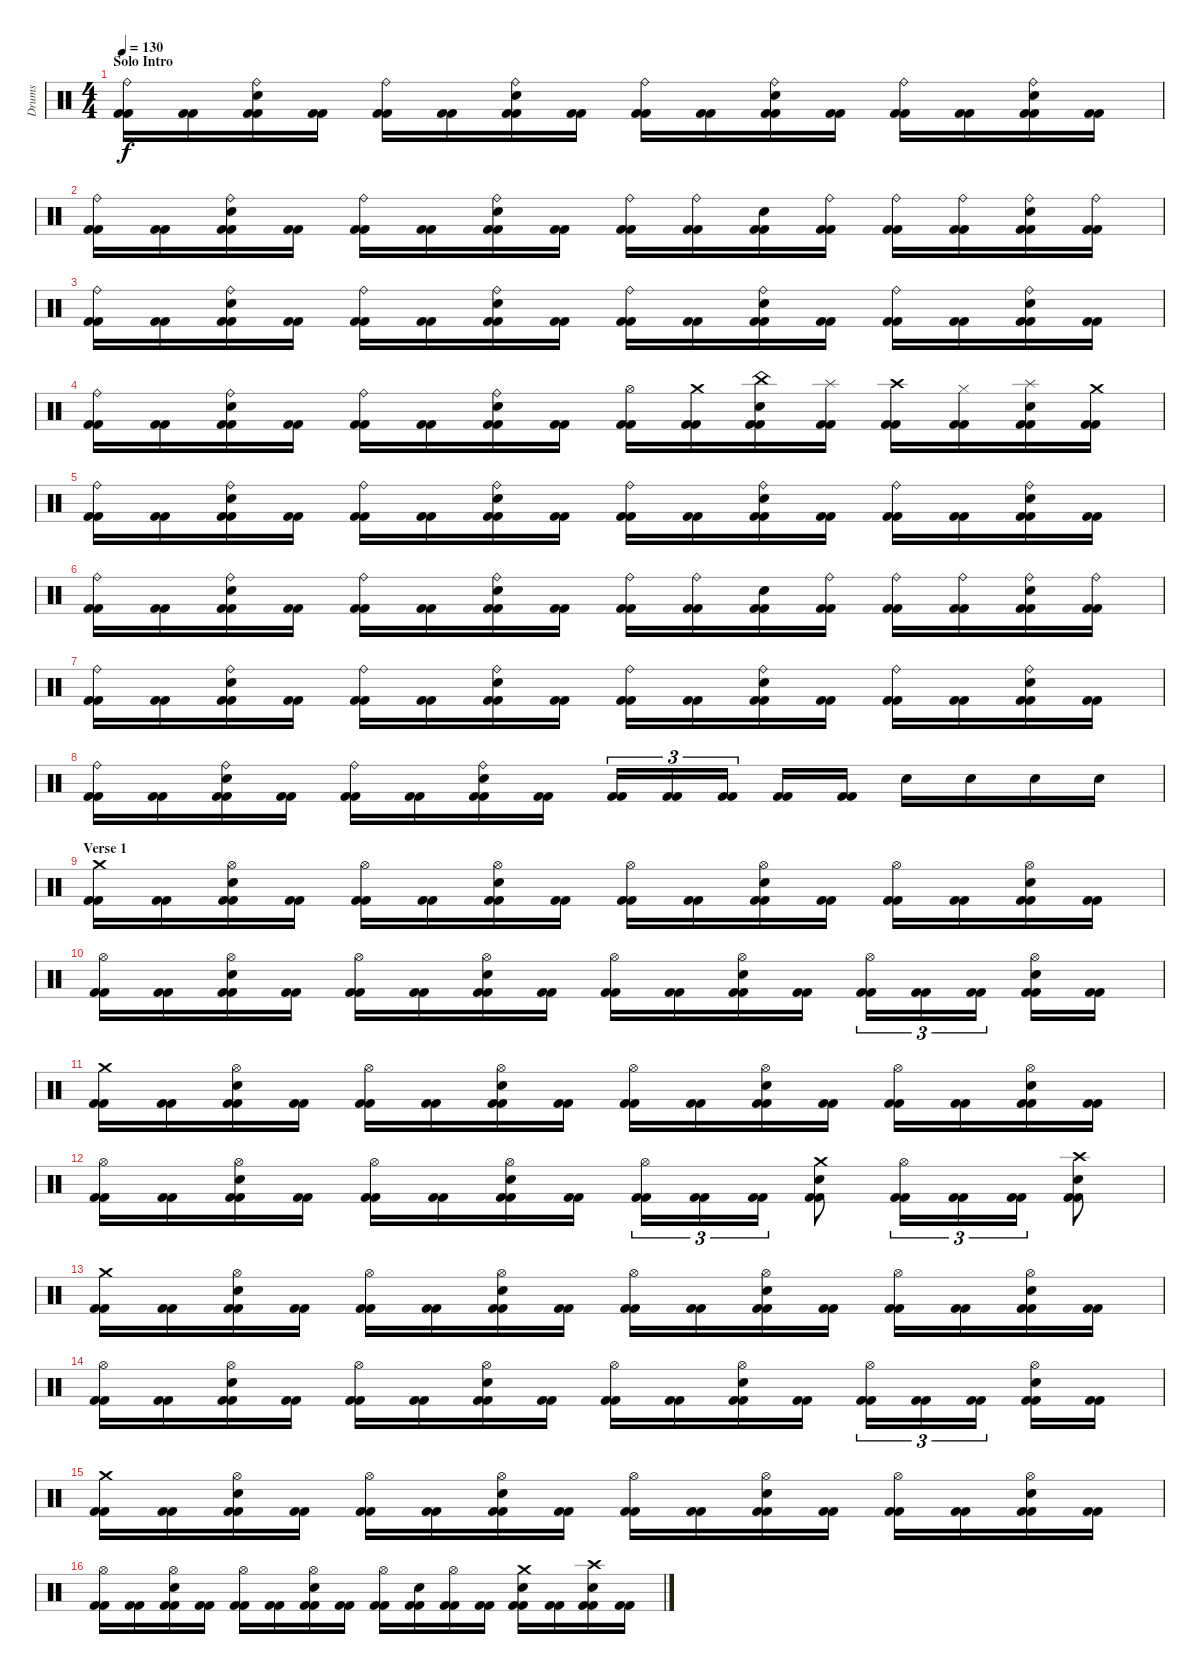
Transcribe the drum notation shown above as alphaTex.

\track ("Drums" "Drums") {instrument percussion}
\staff {score}
\articulation defaults
\ts (4 4)
\section ("" "Solo Intro")
\tempo 130
\clef neutral
\ks c
("Ride (bell)" "Kick (hit) 2" "Kick (hit) 2").16{dy f} ("Kick (hit) 2" "Kick (hit) 2").16 ("Ride (bell)" "Electric Snare (hit)" "Kick (hit) 2" "Kick (hit) 2").16 ("Kick (hit) 2" "Kick (hit) 2").16 ("Ride (bell)" "Kick (hit) 2" "Kick (hit) 2").16 ("Kick (hit) 2" "Kick (hit) 2").16 ("Ride (bell)" "Electric Snare (hit)" "Kick (hit) 2" "Kick (hit) 2").16 ("Kick (hit) 2" "Kick (hit) 2").16 ("Ride (bell)" "Kick (hit) 2" "Kick (hit) 2").16 ("Kick (hit) 2" "Kick (hit) 2").16 ("Ride (bell)" "Electric Snare (hit)" "Kick (hit) 2" "Kick (hit) 2").16 ("Kick (hit) 2" "Kick (hit) 2").16 ("Ride (bell)" "Kick (hit) 2" "Kick (hit) 2").16 ("Kick (hit) 2" "Kick (hit) 2").16 ("Ride (bell)" "Electric Snare (hit)" "Kick (hit) 2" "Kick (hit) 2").16 ("Kick (hit) 2" "Kick (hit) 2").16 |
("Ride (bell)" "Kick (hit) 2" "Kick (hit) 2").16 ("Kick (hit) 2" "Kick (hit) 2").16 ("Ride (bell)" "Electric Snare (hit)" "Kick (hit) 2" "Kick (hit) 2").16 ("Kick (hit) 2" "Kick (hit) 2").16 ("Ride (bell)" "Kick (hit) 2" "Kick (hit) 2").16 ("Kick (hit) 2" "Kick (hit) 2").16 ("Ride (bell)" "Electric Snare (hit)" "Kick (hit) 2" "Kick (hit) 2").16 ("Kick (hit) 2" "Kick (hit) 2").16 ("Ride (bell)" "Kick (hit) 2" "Kick (hit) 2").16 ("Ride (bell)" "Kick (hit) 2" "Kick (hit) 2").16 ("Electric Snare (hit)" "Kick (hit) 2" "Kick (hit) 2").16 ("Ride (bell)" "Kick (hit) 2" "Kick (hit) 2").16 ("Ride (bell)" "Kick (hit) 2" "Kick (hit) 2").16 ("Ride (bell)" "Kick (hit) 2" "Kick (hit) 2").16 ("Ride (bell)" "Electric Snare (hit)" "Kick (hit) 2" "Kick (hit) 2").16 ("Ride (bell)" "Kick (hit) 2" "Kick (hit) 2").16 |
("Ride (bell)" "Kick (hit) 2" "Kick (hit) 2").16 ("Kick (hit) 2" "Kick (hit) 2").16 ("Ride (bell)" "Electric Snare (hit)" "Kick (hit) 2" "Kick (hit) 2").16 ("Kick (hit) 2" "Kick (hit) 2").16 ("Ride (bell)" "Kick (hit) 2" "Kick (hit) 2").16 ("Kick (hit) 2" "Kick (hit) 2").16 ("Ride (bell)" "Electric Snare (hit)" "Kick (hit) 2" "Kick (hit) 2").16 ("Kick (hit) 2" "Kick (hit) 2").16 ("Ride (bell)" "Kick (hit) 2" "Kick (hit) 2").16 ("Kick (hit) 2" "Kick (hit) 2").16 ("Ride (bell)" "Electric Snare (hit)" "Kick (hit) 2" "Kick (hit) 2").16 ("Kick (hit) 2" "Kick (hit) 2").16 ("Ride (bell)" "Kick (hit) 2" "Kick (hit) 2").16 ("Kick (hit) 2" "Kick (hit) 2").16 ("Ride (bell)" "Electric Snare (hit)" "Kick (hit) 2" "Kick (hit) 2").16 ("Kick (hit) 2" "Kick (hit) 2").16 |
("Ride (bell)" "Kick (hit) 2" "Kick (hit) 2").16 ("Kick (hit) 2" "Kick (hit) 2").16 ("Ride (bell)" "Electric Snare (hit)" "Kick (hit) 2" "Kick (hit) 2").16 ("Kick (hit) 2" "Kick (hit) 2").16 ("Ride (bell)" "Kick (hit) 2" "Kick (hit) 2").16 ("Kick (hit) 2" "Kick (hit) 2").16 ("Ride (bell)" "Electric Snare (hit)" "Kick (hit) 2" "Kick (hit) 2").16 ("Kick (hit) 2" "Kick (hit) 2").16 ("Hi-Hat (open)" "Kick (hit) 2" "Kick (hit) 2").16 ("Crash medium (hit)" "Kick (hit) 2" "Kick (hit) 2").16 ("China (hit)" "Electric Snare (hit)" "Kick (hit) 2" "Kick (hit) 2").16 ("Splash (hit)" "Kick (hit) 2" "Kick (hit) 2").16 ("Crash high (hit)" "Kick (hit) 2" "Kick (hit) 2").16 ("Hi-Hat (closed)" "Kick (hit) 2" "Kick (hit) 2").16 ("Splash (hit)" "Electric Snare (hit)" "Kick (hit) 2" "Kick (hit) 2").16 ("Crash medium (hit)" "Kick (hit) 2" "Kick (hit) 2").16 |
("Ride (bell)" "Kick (hit) 2" "Kick (hit) 2").16 ("Kick (hit) 2" "Kick (hit) 2").16 ("Ride (bell)" "Electric Snare (hit)" "Kick (hit) 2" "Kick (hit) 2").16 ("Kick (hit) 2" "Kick (hit) 2").16 ("Ride (bell)" "Kick (hit) 2" "Kick (hit) 2").16 ("Kick (hit) 2" "Kick (hit) 2").16 ("Ride (bell)" "Electric Snare (hit)" "Kick (hit) 2" "Kick (hit) 2").16 ("Kick (hit) 2" "Kick (hit) 2").16 ("Ride (bell)" "Kick (hit) 2" "Kick (hit) 2").16 ("Kick (hit) 2" "Kick (hit) 2").16 ("Ride (bell)" "Electric Snare (hit)" "Kick (hit) 2" "Kick (hit) 2").16 ("Kick (hit) 2" "Kick (hit) 2").16 ("Ride (bell)" "Kick (hit) 2" "Kick (hit) 2").16 ("Kick (hit) 2" "Kick (hit) 2").16 ("Ride (bell)" "Electric Snare (hit)" "Kick (hit) 2" "Kick (hit) 2").16 ("Kick (hit) 2" "Kick (hit) 2").16 |
("Ride (bell)" "Kick (hit) 2" "Kick (hit) 2").16 ("Kick (hit) 2" "Kick (hit) 2").16 ("Ride (bell)" "Electric Snare (hit)" "Kick (hit) 2" "Kick (hit) 2").16 ("Kick (hit) 2" "Kick (hit) 2").16 ("Ride (bell)" "Kick (hit) 2" "Kick (hit) 2").16 ("Kick (hit) 2" "Kick (hit) 2").16 ("Ride (bell)" "Electric Snare (hit)" "Kick (hit) 2" "Kick (hit) 2").16 ("Kick (hit) 2" "Kick (hit) 2").16 ("Ride (bell)" "Kick (hit) 2" "Kick (hit) 2").16 ("Ride (bell)" "Kick (hit) 2" "Kick (hit) 2").16 ("Electric Snare (hit)" "Kick (hit) 2" "Kick (hit) 2").16 ("Ride (bell)" "Kick (hit) 2" "Kick (hit) 2").16 ("Ride (bell)" "Kick (hit) 2" "Kick (hit) 2").16 ("Ride (bell)" "Kick (hit) 2" "Kick (hit) 2").16 ("Ride (bell)" "Electric Snare (hit)" "Kick (hit) 2" "Kick (hit) 2").16 ("Ride (bell)" "Kick (hit) 2" "Kick (hit) 2").16 |
("Ride (bell)" "Kick (hit) 2" "Kick (hit) 2").16 ("Kick (hit) 2" "Kick (hit) 2").16 ("Ride (bell)" "Electric Snare (hit)" "Kick (hit) 2" "Kick (hit) 2").16 ("Kick (hit) 2" "Kick (hit) 2").16 ("Ride (bell)" "Kick (hit) 2" "Kick (hit) 2").16 ("Kick (hit) 2" "Kick (hit) 2").16 ("Ride (bell)" "Electric Snare (hit)" "Kick (hit) 2" "Kick (hit) 2").16 ("Kick (hit) 2" "Kick (hit) 2").16 ("Ride (bell)" "Kick (hit) 2" "Kick (hit) 2").16 ("Kick (hit) 2" "Kick (hit) 2").16 ("Ride (bell)" "Electric Snare (hit)" "Kick (hit) 2" "Kick (hit) 2").16 ("Kick (hit) 2" "Kick (hit) 2").16 ("Ride (bell)" "Kick (hit) 2" "Kick (hit) 2").16 ("Kick (hit) 2" "Kick (hit) 2").16 ("Ride (bell)" "Electric Snare (hit)" "Kick (hit) 2" "Kick (hit) 2").16 ("Kick (hit) 2" "Kick (hit) 2").16 |
("Ride (bell)" "Kick (hit) 2" "Kick (hit) 2").16 ("Kick (hit) 2" "Kick (hit) 2").16 ("Ride (bell)" "Electric Snare (hit)" "Kick (hit) 2" "Kick (hit) 2").16 ("Kick (hit) 2" "Kick (hit) 2").16 ("Ride (bell)" "Kick (hit) 2" "Kick (hit) 2").16 ("Kick (hit) 2" "Kick (hit) 2").16 ("Ride (bell)" "Electric Snare (hit)" "Kick (hit) 2" "Kick (hit) 2").16 ("Kick (hit) 2" "Kick (hit) 2").16 ("Kick (hit) 2" "Kick (hit) 2").16{tu (3 2)} ("Kick (hit) 2" "Kick (hit) 2").16{tu (3 2)} ("Kick (hit) 2" "Kick (hit) 2").16{tu (3 2)} ("Kick (hit) 2" "Kick (hit) 2").16 ("Kick (hit) 2" "Kick (hit) 2").16 "Electric Snare (hit)".16 "Electric Snare (hit)".16 "Electric Snare (hit)".16 "Electric Snare (hit)".16 |
\section ("" "Verse 1")
("Crash medium (hit)" "Kick (hit) 2" "Kick (hit) 2").16 ("Kick (hit) 2" "Kick (hit) 2").16 ("Hi-Hat (open)" "Electric Snare (hit)" "Kick (hit) 2" "Kick (hit) 2").16 ("Kick (hit) 2" "Kick (hit) 2").16 ("Hi-Hat (open)" "Kick (hit) 2" "Kick (hit) 2").16 ("Kick (hit) 2" "Kick (hit) 2").16 ("Hi-Hat (open)" "Electric Snare (hit)" "Kick (hit) 2" "Kick (hit) 2").16 ("Kick (hit) 2" "Kick (hit) 2").16 ("Hi-Hat (open)" "Kick (hit) 2" "Kick (hit) 2").16 ("Kick (hit) 2" "Kick (hit) 2").16 ("Hi-Hat (open)" "Electric Snare (hit)" "Kick (hit) 2" "Kick (hit) 2").16 ("Kick (hit) 2" "Kick (hit) 2").16 ("Hi-Hat (open)" "Kick (hit) 2" "Kick (hit) 2").16 ("Kick (hit) 2" "Kick (hit) 2").16 ("Hi-Hat (open)" "Electric Snare (hit)" "Kick (hit) 2" "Kick (hit) 2").16 ("Kick (hit) 2" "Kick (hit) 2").16 |
("Hi-Hat (open)" "Kick (hit) 2" "Kick (hit) 2").16 ("Kick (hit) 2" "Kick (hit) 2").16 ("Hi-Hat (open)" "Electric Snare (hit)" "Kick (hit) 2" "Kick (hit) 2").16 ("Kick (hit) 2" "Kick (hit) 2").16 ("Hi-Hat (open)" "Kick (hit) 2" "Kick (hit) 2").16 ("Kick (hit) 2" "Kick (hit) 2").16 ("Hi-Hat (open)" "Electric Snare (hit)" "Kick (hit) 2" "Kick (hit) 2").16 ("Kick (hit) 2" "Kick (hit) 2").16 ("Hi-Hat (open)" "Kick (hit) 2" "Kick (hit) 2").16 ("Kick (hit) 2" "Kick (hit) 2").16 ("Hi-Hat (open)" "Electric Snare (hit)" "Kick (hit) 2" "Kick (hit) 2").16 ("Kick (hit) 2" "Kick (hit) 2").16 ("Hi-Hat (open)" "Kick (hit) 2" "Kick (hit) 2").16{tu (3 2)} ("Kick (hit) 2" "Kick (hit) 2").16{tu (3 2)} ("Kick (hit) 2" "Kick (hit) 2").16{tu (3 2)} ("Hi-Hat (open)" "Electric Snare (hit)" "Kick (hit) 2" "Kick (hit) 2").16 ("Kick (hit) 2" "Kick (hit) 2").16 |
("Crash medium (hit)" "Kick (hit) 2" "Kick (hit) 2").16 ("Kick (hit) 2" "Kick (hit) 2").16 ("Hi-Hat (open)" "Electric Snare (hit)" "Kick (hit) 2" "Kick (hit) 2").16 ("Kick (hit) 2" "Kick (hit) 2").16 ("Hi-Hat (open)" "Kick (hit) 2" "Kick (hit) 2").16 ("Kick (hit) 2" "Kick (hit) 2").16 ("Hi-Hat (open)" "Electric Snare (hit)" "Kick (hit) 2" "Kick (hit) 2").16 ("Kick (hit) 2" "Kick (hit) 2").16 ("Hi-Hat (open)" "Kick (hit) 2" "Kick (hit) 2").16 ("Kick (hit) 2" "Kick (hit) 2").16 ("Hi-Hat (open)" "Electric Snare (hit)" "Kick (hit) 2" "Kick (hit) 2").16 ("Kick (hit) 2" "Kick (hit) 2").16 ("Hi-Hat (open)" "Kick (hit) 2" "Kick (hit) 2").16 ("Kick (hit) 2" "Kick (hit) 2").16 ("Hi-Hat (open)" "Electric Snare (hit)" "Kick (hit) 2" "Kick (hit) 2").16 ("Kick (hit) 2" "Kick (hit) 2").16 |
("Hi-Hat (open)" "Kick (hit) 2" "Kick (hit) 2").16 ("Kick (hit) 2" "Kick (hit) 2").16 ("Hi-Hat (open)" "Electric Snare (hit)" "Kick (hit) 2" "Kick (hit) 2").16 ("Kick (hit) 2" "Kick (hit) 2").16 ("Hi-Hat (open)" "Kick (hit) 2" "Kick (hit) 2").16 ("Kick (hit) 2" "Kick (hit) 2").16 ("Hi-Hat (open)" "Electric Snare (hit)" "Kick (hit) 2" "Kick (hit) 2").16 ("Kick (hit) 2" "Kick (hit) 2").16 ("Hi-Hat (open)" "Kick (hit) 2" "Kick (hit) 2").16{tu (3 2)} ("Kick (hit) 2" "Kick (hit) 2").16{tu (3 2)} ("Kick (hit) 2" "Kick (hit) 2").16{tu (3 2)} ("Crash medium (hit)" "Electric Snare (hit)" "Kick (hit) 2" "Kick (hit) 2").8 ("Hi-Hat (open)" "Kick (hit) 2" "Kick (hit) 2").16{tu (3 2)} ("Kick (hit) 2" "Kick (hit) 2").16{tu (3 2)} ("Kick (hit) 2" "Kick (hit) 2").16{tu (3 2)} ("Crash high (hit)" "Electric Snare (hit)" "Kick (hit) 2" "Kick (hit) 2").8 |
("Crash medium (hit)" "Kick (hit) 2" "Kick (hit) 2").16 ("Kick (hit) 2" "Kick (hit) 2").16 ("Hi-Hat (open)" "Electric Snare (hit)" "Kick (hit) 2" "Kick (hit) 2").16 ("Kick (hit) 2" "Kick (hit) 2").16 ("Hi-Hat (open)" "Kick (hit) 2" "Kick (hit) 2").16 ("Kick (hit) 2" "Kick (hit) 2").16 ("Hi-Hat (open)" "Electric Snare (hit)" "Kick (hit) 2" "Kick (hit) 2").16 ("Kick (hit) 2" "Kick (hit) 2").16 ("Hi-Hat (open)" "Kick (hit) 2" "Kick (hit) 2").16 ("Kick (hit) 2" "Kick (hit) 2").16 ("Hi-Hat (open)" "Electric Snare (hit)" "Kick (hit) 2" "Kick (hit) 2").16 ("Kick (hit) 2" "Kick (hit) 2").16 ("Hi-Hat (open)" "Kick (hit) 2" "Kick (hit) 2").16 ("Kick (hit) 2" "Kick (hit) 2").16 ("Hi-Hat (open)" "Electric Snare (hit)" "Kick (hit) 2" "Kick (hit) 2").16 ("Kick (hit) 2" "Kick (hit) 2").16 |
("Hi-Hat (open)" "Kick (hit) 2" "Kick (hit) 2").16 ("Kick (hit) 2" "Kick (hit) 2").16 ("Hi-Hat (open)" "Electric Snare (hit)" "Kick (hit) 2" "Kick (hit) 2").16 ("Kick (hit) 2" "Kick (hit) 2").16 ("Hi-Hat (open)" "Kick (hit) 2" "Kick (hit) 2").16 ("Kick (hit) 2" "Kick (hit) 2").16 ("Hi-Hat (open)" "Electric Snare (hit)" "Kick (hit) 2" "Kick (hit) 2").16 ("Kick (hit) 2" "Kick (hit) 2").16 ("Hi-Hat (open)" "Kick (hit) 2" "Kick (hit) 2").16 ("Kick (hit) 2" "Kick (hit) 2").16 ("Hi-Hat (open)" "Electric Snare (hit)" "Kick (hit) 2" "Kick (hit) 2").16 ("Kick (hit) 2" "Kick (hit) 2").16 ("Hi-Hat (open)" "Kick (hit) 2" "Kick (hit) 2").16{tu (3 2)} ("Kick (hit) 2" "Kick (hit) 2").16{tu (3 2)} ("Kick (hit) 2" "Kick (hit) 2").16{tu (3 2)} ("Hi-Hat (open)" "Electric Snare (hit)" "Kick (hit) 2" "Kick (hit) 2").16 ("Kick (hit) 2" "Kick (hit) 2").16 |
("Crash medium (hit)" "Kick (hit) 2" "Kick (hit) 2").16 ("Kick (hit) 2" "Kick (hit) 2").16 ("Hi-Hat (open)" "Electric Snare (hit)" "Kick (hit) 2" "Kick (hit) 2").16 ("Kick (hit) 2" "Kick (hit) 2").16 ("Hi-Hat (open)" "Kick (hit) 2" "Kick (hit) 2").16 ("Kick (hit) 2" "Kick (hit) 2").16 ("Hi-Hat (open)" "Electric Snare (hit)" "Kick (hit) 2" "Kick (hit) 2").16 ("Kick (hit) 2" "Kick (hit) 2").16 ("Hi-Hat (open)" "Kick (hit) 2" "Kick (hit) 2").16 ("Kick (hit) 2" "Kick (hit) 2").16 ("Hi-Hat (open)" "Electric Snare (hit)" "Kick (hit) 2" "Kick (hit) 2").16 ("Kick (hit) 2" "Kick (hit) 2").16 ("Hi-Hat (open)" "Kick (hit) 2" "Kick (hit) 2").16 ("Kick (hit) 2" "Kick (hit) 2").16 ("Hi-Hat (open)" "Electric Snare (hit)" "Kick (hit) 2" "Kick (hit) 2").16 ("Kick (hit) 2" "Kick (hit) 2").16 |
("Hi-Hat (open)" "Kick (hit) 2" "Kick (hit) 2").16 ("Kick (hit) 2" "Kick (hit) 2").16 ("Hi-Hat (open)" "Electric Snare (hit)" "Kick (hit) 2" "Kick (hit) 2").16 ("Kick (hit) 2" "Kick (hit) 2").16 ("Hi-Hat (open)" "Kick (hit) 2" "Kick (hit) 2").16 ("Kick (hit) 2" "Kick (hit) 2").16 ("Hi-Hat (open)" "Electric Snare (hit)" "Kick (hit) 2" "Kick (hit) 2").16 ("Kick (hit) 2" "Kick (hit) 2").16 ("Hi-Hat (open)" "Kick (hit) 2" "Kick (hit) 2").16 ("Electric Snare (hit)" "Kick (hit) 2" "Kick (hit) 2").16 ("Hi-Hat (open)" "Kick (hit) 2" "Kick (hit) 2").16 ("Kick (hit) 2" "Kick (hit) 2").16 ("Crash medium (hit)" "Electric Snare (hit)" "Kick (hit) 2" "Kick (hit) 2").16 ("Kick (hit) 2" "Kick (hit) 2").16 ("Crash high (hit)" "Electric Snare (hit)" "Kick (hit) 2" "Kick (hit) 2").16 ("Kick (hit) 2" "Kick (hit) 2").16
